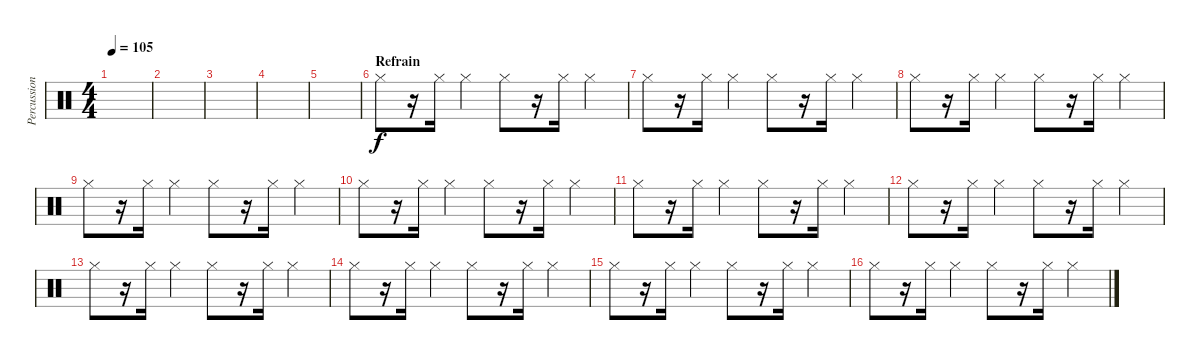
\track ("Percussions" "Percussion") {instrument percussion}
\staff {score}
\articulation defaults
\ts (4 4)
\tempo 105
\clef neutral
\ks c
|
|
|
|
|
\section ("" "Refrain")
"Hi-Hat (closed)".8 r.16 "Hi-Hat (closed)".16 "Hi-Hat (closed)".4 "Hi-Hat (closed)".8 r.16 "Hi-Hat (closed)".16 "Hi-Hat (closed)".4 |
"Hi-Hat (closed)".8 r.16 "Hi-Hat (closed)".16 "Hi-Hat (closed)".4 "Hi-Hat (closed)".8 r.16 "Hi-Hat (closed)".16 "Hi-Hat (closed)".4 |
"Hi-Hat (closed)".8 r.16 "Hi-Hat (closed)".16 "Hi-Hat (closed)".4 "Hi-Hat (closed)".8 r.16 "Hi-Hat (closed)".16 "Hi-Hat (closed)".4 |
"Hi-Hat (closed)".8 r.16 "Hi-Hat (closed)".16 "Hi-Hat (closed)".4 "Hi-Hat (closed)".8 r.16 "Hi-Hat (closed)".16 "Hi-Hat (closed)".4 |
"Hi-Hat (closed)".8 r.16 "Hi-Hat (closed)".16 "Hi-Hat (closed)".4 "Hi-Hat (closed)".8 r.16 "Hi-Hat (closed)".16 "Hi-Hat (closed)".4 |
"Hi-Hat (closed)".8 r.16 "Hi-Hat (closed)".16 "Hi-Hat (closed)".4 "Hi-Hat (closed)".8 r.16 "Hi-Hat (closed)".16 "Hi-Hat (closed)".4 |
"Hi-Hat (closed)".8 r.16 "Hi-Hat (closed)".16 "Hi-Hat (closed)".4 "Hi-Hat (closed)".8 r.16 "Hi-Hat (closed)".16 "Hi-Hat (closed)".4 |
"Hi-Hat (closed)".8 r.16 "Hi-Hat (closed)".16 "Hi-Hat (closed)".4 "Hi-Hat (closed)".8 r.16 "Hi-Hat (closed)".16 "Hi-Hat (closed)".4 |
"Hi-Hat (closed)".8 r.16 "Hi-Hat (closed)".16 "Hi-Hat (closed)".4 "Hi-Hat (closed)".8 r.16 "Hi-Hat (closed)".16 "Hi-Hat (closed)".4 |
"Hi-Hat (closed)".8 r.16 "Hi-Hat (closed)".16 "Hi-Hat (closed)".4 "Hi-Hat (closed)".8 r.16 "Hi-Hat (closed)".16 "Hi-Hat (closed)".4 |
"Hi-Hat (closed)".8 r.16 "Hi-Hat (closed)".16 "Hi-Hat (closed)".4 "Hi-Hat (closed)".8 r.16 "Hi-Hat (closed)".16 "Hi-Hat (closed)".4
